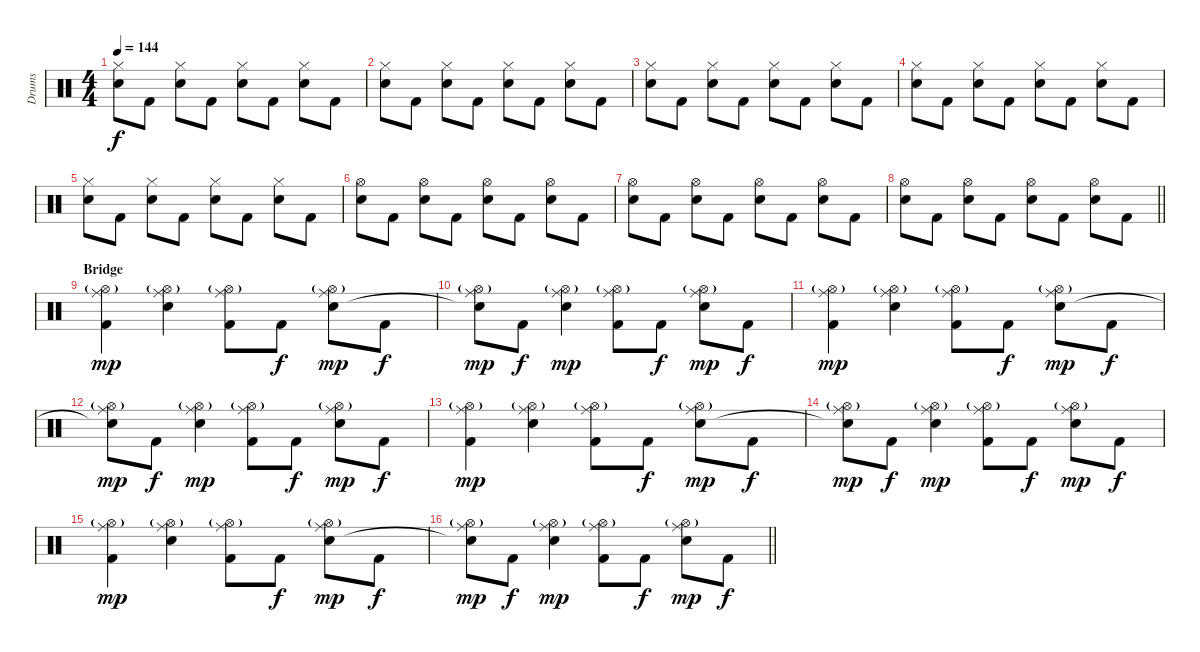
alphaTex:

\track ("Drums" "Drums") {instrument percussion}
\staff {score}
\articulation defaults
\ts (4 4)
\tempo 144
\clef neutral
\ks c
("Hi-Hat (closed)" "Electric Snare (hit)").8{dy f} "Kick (hit) 2".8 ("Hi-Hat (closed)" "Electric Snare (hit)").8 "Kick (hit) 2".8 ("Hi-Hat (closed)" "Electric Snare (hit)").8 "Kick (hit) 2".8 ("Hi-Hat (closed)" "Electric Snare (hit)").8 "Kick (hit) 2".8 |
("Hi-Hat (closed)" "Electric Snare (hit)").8 "Kick (hit) 2".8 ("Hi-Hat (closed)" "Electric Snare (hit)").8 "Kick (hit) 2".8 ("Hi-Hat (closed)" "Electric Snare (hit)").8 "Kick (hit) 2".8 ("Hi-Hat (closed)" "Electric Snare (hit)").8 "Kick (hit) 2".8 |
("Hi-Hat (closed)" "Electric Snare (hit)").8 "Kick (hit) 2".8 ("Hi-Hat (closed)" "Electric Snare (hit)").8 "Kick (hit) 2".8 ("Hi-Hat (closed)" "Electric Snare (hit)").8 "Kick (hit) 2".8 ("Hi-Hat (closed)" "Electric Snare (hit)").8 "Kick (hit) 2".8 |
("Hi-Hat (closed)" "Electric Snare (hit)").8 "Kick (hit) 2".8 ("Hi-Hat (closed)" "Electric Snare (hit)").8 "Kick (hit) 2".8 ("Hi-Hat (closed)" "Electric Snare (hit)").8 "Kick (hit) 2".8 ("Hi-Hat (closed)" "Electric Snare (hit)").8 "Kick (hit) 2".8 |
("Hi-Hat (closed)" "Electric Snare (hit)").8 "Kick (hit) 2".8 ("Hi-Hat (closed)" "Electric Snare (hit)").8 "Kick (hit) 2".8 ("Hi-Hat (closed)" "Electric Snare (hit)").8 "Kick (hit) 2".8 ("Hi-Hat (closed)" "Electric Snare (hit)").8 "Kick (hit) 2".8 |
("Hi-Hat (open)" "Electric Snare (hit)").8 "Kick (hit) 2".8 ("Hi-Hat (open)" "Electric Snare (hit)").8 "Kick (hit) 2".8 ("Hi-Hat (open)" "Electric Snare (hit)").8 "Kick (hit) 2".8 ("Hi-Hat (open)" "Electric Snare (hit)").8 "Kick (hit) 2".8 |
("Hi-Hat (open)" "Electric Snare (hit)").8 "Kick (hit) 2".8 ("Hi-Hat (open)" "Electric Snare (hit)").8 "Kick (hit) 2".8 ("Hi-Hat (open)" "Electric Snare (hit)").8 "Kick (hit) 2".8 ("Hi-Hat (open)" "Electric Snare (hit)").8 "Kick (hit) 2".8 |
\barLineRight lightlight
("Hi-Hat (open)" "Electric Snare (hit)").8 "Kick (hit) 2".8 ("Hi-Hat (open)" "Electric Snare (hit)").8 "Kick (hit) 2".8 ("Hi-Hat (open)" "Electric Snare (hit)").8 "Kick (hit) 2".8 ("Hi-Hat (open)" "Electric Snare (hit)").8 "Kick (hit) 2".8 |
\section ("" "Bridge")
("Ride (middle)" "Hi-Hat (open)"{g} "Kick (hit) 2").4{dy mp} ("Ride (middle)" "Hi-Hat (open)"{g} "Electric Snare (hit)").4 ("Ride (middle)" "Hi-Hat (open)"{g} "Kick (hit) 2").8 "Kick (hit) 2".8{dy f} ("Ride (middle)" "Hi-Hat (open)"{g} "Electric Snare (hit)").8{dy mp} "Kick (hit) 2".8{dy f} |
("Ride (middle)" "Hi-Hat (open)"{g} "Snare (hit)"{t}).8{dy mp} "Kick (hit) 2".8{dy f} ("Ride (middle)" "Hi-Hat (open)"{g} "Electric Snare (hit)").4{dy mp} ("Ride (middle)" "Hi-Hat (open)"{g} "Kick (hit) 2").8 "Kick (hit) 2".8{dy f} ("Ride (middle)" "Hi-Hat (open)"{g} "Electric Snare (hit)").8{dy mp} "Kick (hit) 2".8{dy f} |
("Ride (middle)" "Hi-Hat (open)"{g} "Kick (hit) 2").4{dy mp} ("Ride (middle)" "Hi-Hat (open)"{g} "Electric Snare (hit)").4 ("Ride (middle)" "Hi-Hat (open)"{g} "Kick (hit) 2").8 "Kick (hit) 2".8{dy f} ("Ride (middle)" "Hi-Hat (open)"{g} "Electric Snare (hit)").8{dy mp} "Kick (hit) 2".8{dy f} |
("Ride (middle)" "Hi-Hat (open)"{g} "Snare (hit)"{t}).8{dy mp} "Kick (hit) 2".8{dy f} ("Ride (middle)" "Hi-Hat (open)"{g} "Electric Snare (hit)").4{dy mp} ("Ride (middle)" "Hi-Hat (open)"{g} "Kick (hit) 2").8 "Kick (hit) 2".8{dy f} ("Ride (middle)" "Hi-Hat (open)"{g} "Electric Snare (hit)").8{dy mp} "Kick (hit) 2".8{dy f} |
("Ride (middle)" "Hi-Hat (open)"{g} "Kick (hit) 2").4{dy mp} ("Ride (middle)" "Hi-Hat (open)"{g} "Electric Snare (hit)").4 ("Ride (middle)" "Hi-Hat (open)"{g} "Kick (hit) 2").8 "Kick (hit) 2".8{dy f} ("Ride (middle)" "Hi-Hat (open)"{g} "Electric Snare (hit)").8{dy mp} "Kick (hit) 2".8{dy f} |
("Ride (middle)" "Hi-Hat (open)"{g} "Snare (hit)"{t}).8{dy mp} "Kick (hit) 2".8{dy f} ("Ride (middle)" "Hi-Hat (open)"{g} "Electric Snare (hit)").4{dy mp} ("Ride (middle)" "Hi-Hat (open)"{g} "Kick (hit) 2").8 "Kick (hit) 2".8{dy f} ("Ride (middle)" "Hi-Hat (open)"{g} "Electric Snare (hit)").8{dy mp} "Kick (hit) 2".8{dy f} |
("Ride (middle)" "Hi-Hat (open)"{g} "Kick (hit) 2").4{dy mp} ("Ride (middle)" "Hi-Hat (open)"{g} "Electric Snare (hit)").4 ("Ride (middle)" "Hi-Hat (open)"{g} "Kick (hit) 2").8 "Kick (hit) 2".8{dy f} ("Ride (middle)" "Hi-Hat (open)"{g} "Electric Snare (hit)").8{dy mp} "Kick (hit) 2".8{dy f} |
\barLineRight lightlight
("Ride (middle)" "Hi-Hat (open)"{g} "Snare (hit)"{t}).8{dy mp} "Kick (hit) 2".8{dy f} ("Ride (middle)" "Hi-Hat (open)"{g} "Electric Snare (hit)").4{dy mp} ("Ride (middle)" "Hi-Hat (open)"{g} "Kick (hit) 2").8 "Kick (hit) 2".8{dy f} ("Ride (middle)" "Hi-Hat (open)"{g} "Electric Snare (hit)").8{dy mp} "Kick (hit) 2".8{dy f}
